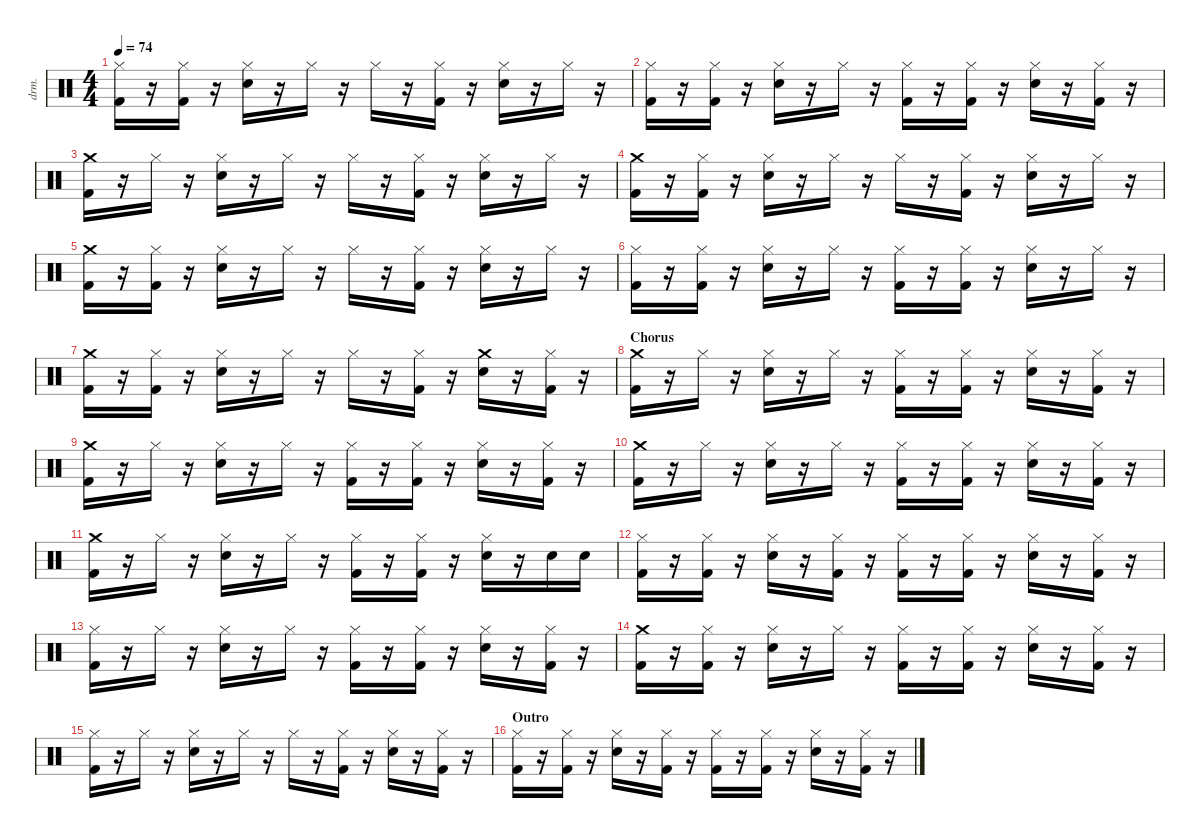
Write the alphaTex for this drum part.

\defaultSystemsLayout 4
\hideDynamics
\bracketExtendMode nobrackets
\track ("Dave Grohl" "drm.") {instrument percussion}
\staff {score}
\articulation defaults
\ts (4 4)
\tempo 74
\clef neutral
\ks c
("Hi-Hat (closed)" "Kick (hit) 2").16{dy f} r.16 ("Hi-Hat (closed)" "Kick (hit) 2").16 r.16 ("Hi-Hat (closed)" "Snare (hit) 2").16 r.16 "Hi-Hat (closed)".16 r.16 "Hi-Hat (closed)".16 r.16 ("Hi-Hat (closed)" "Kick (hit) 2").16 r.16 ("Hi-Hat (closed)" "Snare (hit) 2").16 r.16 "Hi-Hat (closed)".16 r.16 |
("Hi-Hat (closed)" "Kick (hit) 2").16 r.16 ("Hi-Hat (closed)" "Kick (hit) 2").16 r.16 ("Hi-Hat (closed)" "Snare (hit) 2").16 r.16 "Hi-Hat (closed)".16 r.16 ("Hi-Hat (closed)" "Kick (hit) 2").16 r.16 ("Hi-Hat (closed)" "Kick (hit) 2").16 r.16 ("Hi-Hat (closed)" "Snare (hit) 2").16 r.16 ("Hi-Hat (closed)" "Kick (hit) 2").16 r.16 |
("Crash medium (hit)" "Kick (hit) 2").16 r.16 "Hi-Hat (closed)".16 r.16 ("Hi-Hat (closed)" "Snare (hit) 2").16 r.16 "Hi-Hat (closed)".16 r.16 "Hi-Hat (closed)".16 r.16 ("Hi-Hat (closed)" "Kick (hit) 2").16 r.16 ("Hi-Hat (closed)" "Snare (hit) 2").16 r.16 "Hi-Hat (closed)".16 r.16 |
("Crash medium (hit)" "Kick (hit) 2").16 r.16 ("Hi-Hat (closed)" "Kick (hit) 2").16 r.16 ("Hi-Hat (closed)" "Snare (hit) 2").16 r.16 "Hi-Hat (closed)".16 r.16 "Hi-Hat (closed)".16 r.16 ("Hi-Hat (closed)" "Kick (hit) 2").16 r.16 ("Hi-Hat (closed)" "Snare (hit) 2").16 r.16 "Hi-Hat (closed)".16 r.16 |
("Crash medium (hit)" "Kick (hit) 2").16 r.16 ("Hi-Hat (closed)" "Kick (hit) 2").16 r.16 ("Hi-Hat (closed)" "Snare (hit) 2").16 r.16 "Hi-Hat (closed)".16 r.16 "Hi-Hat (closed)".16 r.16 ("Hi-Hat (closed)" "Kick (hit) 2").16 r.16 ("Hi-Hat (closed)" "Snare (hit) 2").16 r.16 "Hi-Hat (closed)".16 r.16 |
("Hi-Hat (closed)" "Kick (hit) 2").16 r.16 ("Hi-Hat (closed)" "Kick (hit) 2").16 r.16 ("Hi-Hat (closed)" "Snare (hit) 2").16 r.16 "Hi-Hat (closed)".16 r.16 ("Hi-Hat (closed)" "Kick (hit) 2").16 r.16 ("Hi-Hat (closed)" "Kick (hit) 2").16 r.16 ("Hi-Hat (closed)" "Snare (hit) 2").16 r.16 "Hi-Hat (closed)".16 r.16 |
("Crash medium (hit)" "Kick (hit) 2").16 r.16 ("Hi-Hat (closed)" "Kick (hit) 2").16 r.16 ("Hi-Hat (closed)" "Snare (hit) 2").16 r.16 "Hi-Hat (closed)".16 r.16 "Hi-Hat (closed)".16 r.16 ("Hi-Hat (closed)" "Kick (hit) 2").16 r.16 ("Crash medium (hit)" "Snare (hit) 2").16 r.16 ("Hi-Hat (closed)" "Kick (hit) 2").16 r.16 |
\section ("" "Chorus")
("Crash medium (hit)" "Kick (hit) 2").16 r.16 "Hi-Hat (closed)".16 r.16 ("Hi-Hat (closed)" "Snare (hit) 2").16 r.16 "Hi-Hat (closed)".16 r.16 ("Hi-Hat (closed)" "Kick (hit) 2").16 r.16 ("Hi-Hat (closed)" "Kick (hit) 2").16 r.16 ("Hi-Hat (closed)" "Snare (hit) 2").16 r.16 ("Hi-Hat (closed)" "Kick (hit) 2").16 r.16 |
("Crash medium (hit)" "Kick (hit) 2").16 r.16 "Hi-Hat (closed)".16 r.16 ("Hi-Hat (closed)" "Snare (hit) 2").16 r.16 "Hi-Hat (closed)".16 r.16 ("Hi-Hat (closed)" "Kick (hit) 2").16 r.16 ("Hi-Hat (closed)" "Kick (hit) 2").16 r.16 ("Hi-Hat (closed)" "Snare (hit) 2").16 r.16 ("Hi-Hat (closed)" "Kick (hit) 2").16 r.16 |
("Crash medium (hit)" "Kick (hit) 2").16 r.16 "Hi-Hat (closed)".16 r.16 ("Hi-Hat (closed)" "Snare (hit) 2").16 r.16 "Hi-Hat (closed)".16 r.16 ("Hi-Hat (closed)" "Kick (hit) 2").16 r.16 ("Hi-Hat (closed)" "Kick (hit) 2").16 r.16 ("Hi-Hat (closed)" "Snare (hit) 2").16 r.16 ("Hi-Hat (closed)" "Kick (hit) 2").16 r.16 |
("Crash medium (hit)" "Kick (hit) 2").16 r.16 "Hi-Hat (closed)".16 r.16 ("Hi-Hat (closed)" "Snare (hit) 2").16 r.16 "Hi-Hat (closed)".16 r.16 ("Hi-Hat (closed)" "Kick (hit) 2").16 r.16 ("Hi-Hat (closed)" "Kick (hit) 2").16 r.16 ("Hi-Hat (closed)" "Snare (hit) 2").16 r.16 "Snare (hit) 2".16 "Snare (hit) 2".16 |
("Hi-Hat (closed)" "Kick (hit) 2").16 r.16 ("Hi-Hat (closed)" "Kick (hit) 2").16 r.16 ("Hi-Hat (closed)" "Snare (hit) 2").16 r.16 ("Hi-Hat (closed)" "Kick (hit) 2").16 r.16 ("Hi-Hat (closed)" "Kick (hit) 2").16 r.16 ("Hi-Hat (closed)" "Kick (hit) 2").16 r.16 ("Hi-Hat (closed)" "Snare (hit) 2").16 r.16 ("Hi-Hat (closed)" "Kick (hit) 2").16 r.16 |
("Hi-Hat (closed)" "Kick (hit) 2").16 r.16 "Hi-Hat (closed)".16 r.16 ("Hi-Hat (closed)" "Snare (hit) 2").16 r.16 "Hi-Hat (closed)".16 r.16 ("Hi-Hat (closed)" "Kick (hit) 2").16 r.16 ("Hi-Hat (closed)" "Kick (hit) 2").16 r.16 ("Hi-Hat (closed)" "Snare (hit) 2").16 r.16 ("Hi-Hat (closed)" "Kick (hit) 2").16 r.16 |
("Crash medium (hit)" "Kick (hit) 2").16 r.16 ("Hi-Hat (closed)" "Kick (hit) 2").16 r.16 ("Hi-Hat (closed)" "Snare (hit) 2").16 r.16 "Hi-Hat (closed)".16 r.16 ("Hi-Hat (closed)" "Kick (hit) 2").16 r.16 ("Hi-Hat (closed)" "Kick (hit) 2").16 r.16 ("Hi-Hat (closed)" "Snare (hit) 2").16 r.16 ("Hi-Hat (closed)" "Kick (hit) 2").16 r.16 |
("Hi-Hat (closed)" "Kick (hit) 2").16 r.16 "Hi-Hat (closed)".16 r.16 ("Hi-Hat (closed)" "Snare (hit) 2").16 r.16 "Hi-Hat (closed)".16 r.16 "Hi-Hat (closed)".16 r.16 ("Hi-Hat (closed)" "Kick (hit) 2").16 r.16 ("Hi-Hat (closed)" "Snare (hit) 2").16 r.16 ("Hi-Hat (closed)" "Kick (hit) 2").16 r.16 |
\section ("" "Outro")
("Hi-Hat (closed)" "Kick (hit) 2").16 r.16 ("Hi-Hat (closed)" "Kick (hit) 2").16 r.16 ("Hi-Hat (closed)" "Snare (hit) 2").16 r.16 ("Hi-Hat (closed)" "Kick (hit) 2").16 r.16 ("Hi-Hat (closed)" "Kick (hit) 2").16 r.16 ("Hi-Hat (closed)" "Kick (hit) 2").16 r.16 ("Hi-Hat (closed)" "Snare (hit) 2").16 r.16 ("Hi-Hat (closed)" "Kick (hit) 2").16 r.16
